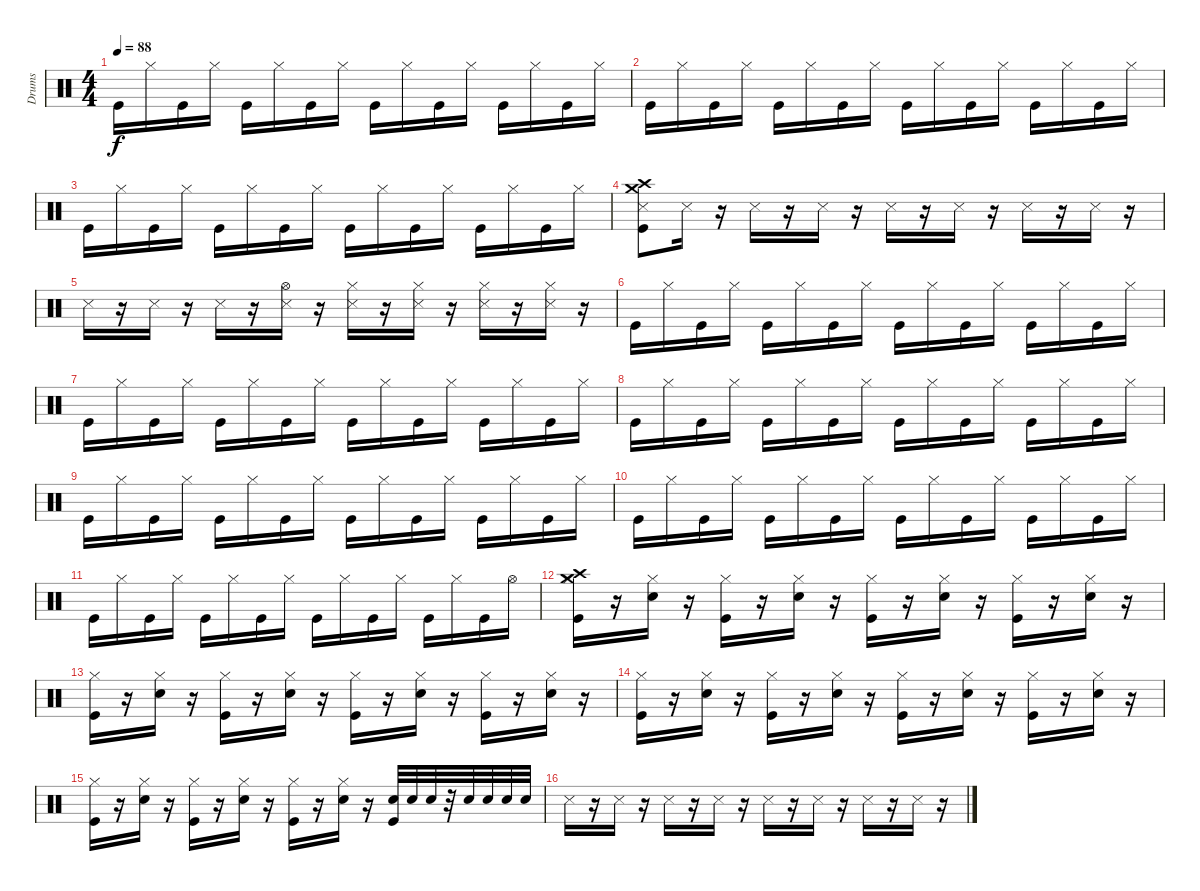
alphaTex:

\track ("Drums" "Drums") {instrument percussion}
\staff {score}
\articulation defaults
\ts (4 4)
\tempo 88
\clef neutral
\ks c "Kick (hit)".16{dy f} "Hi-Hat (closed)".16 "Kick (hit)".16 "Hi-Hat (closed)".16 "Kick (hit)".16 "Hi-Hat (closed)".16 "Kick (hit)".16 "Hi-Hat (closed)".16 "Kick (hit)".16 "Hi-Hat (closed)".16 "Kick (hit)".16 "Hi-Hat (closed)".16 "Kick (hit)".16 "Hi-Hat (closed)".16 "Kick (hit)".16 "Hi-Hat (closed)".16
|
"Kick (hit)".16 "Hi-Hat (closed)".16 "Kick (hit)".16 "Hi-Hat (closed)".16 "Kick (hit)".16 "Hi-Hat (closed)".16 "Kick (hit)".16 "Hi-Hat (closed)".16 "Kick (hit)".16 "Hi-Hat (closed)".16 "Kick (hit)".16 "Hi-Hat (closed)".16 "Kick (hit)".16 "Hi-Hat (closed)".16 "Kick (hit)".16 "Hi-Hat (closed)".16 |
"Kick (hit)".16 "Hi-Hat (closed)".16 "Kick (hit)".16 "Hi-Hat (closed)".16 "Kick (hit)".16 "Hi-Hat (closed)".16 "Kick (hit)".16 "Hi-Hat (closed)".16 "Kick (hit)".16 "Hi-Hat (closed)".16 "Kick (hit)".16 "Hi-Hat (closed)".16 "Kick (hit)".16 "Hi-Hat (closed)".16 "Kick (hit)".16 "Hi-Hat (closed)".16 |
("Snare (side stick) 3" "Crash medium (hit)" "Crash high (hit)" "Kick (hit)").8 "Snare (side stick) 3".16 r.16 "Snare (side stick) 3".16 r.16 "Snare (side stick) 3".16 r.16 "Snare (side stick) 3".16 r.16 "Snare (side stick) 3".16 r.16 "Snare (side stick) 3".16 r.16 "Snare (side stick) 3".16 r.16 |
"Snare (side stick) 3".16 r.16 "Snare (side stick) 3".16 r.16 "Snare (side stick) 3".16 r.16 ("Hi-Hat (open)" "Snare (side stick) 3").16 r.16 ("Hi-Hat (closed)" "Snare (side stick) 3").16 r.16 ("Hi-Hat (closed)" "Snare (side stick) 3").16 r.16 ("Hi-Hat (closed)" "Snare (side stick) 3").16 r.16 ("Hi-Hat (closed)" "Snare (side stick) 3").16 r.16 |
"Kick (hit)".16 "Hi-Hat (closed)".16 "Kick (hit)".16 "Hi-Hat (closed)".16 "Kick (hit)".16 "Hi-Hat (closed)".16 "Kick (hit)".16 "Hi-Hat (closed)".16 "Kick (hit)".16 "Hi-Hat (closed)".16 "Kick (hit)".16 "Hi-Hat (closed)".16 "Kick (hit)".16 "Hi-Hat (closed)".16 "Kick (hit)".16 "Hi-Hat (closed)".16 |
"Kick (hit)".16 "Hi-Hat (closed)".16 "Kick (hit)".16 "Hi-Hat (closed)".16 "Kick (hit)".16 "Hi-Hat (closed)".16 "Kick (hit)".16 "Hi-Hat (closed)".16 "Kick (hit)".16 "Hi-Hat (closed)".16 "Kick (hit)".16 "Hi-Hat (closed)".16 "Kick (hit)".16 "Hi-Hat (closed)".16 "Kick (hit)".16 "Hi-Hat (closed)".16 |
"Kick (hit)".16 "Hi-Hat (closed)".16 "Kick (hit)".16 "Hi-Hat (closed)".16 "Kick (hit)".16 "Hi-Hat (closed)".16 "Kick (hit)".16 "Hi-Hat (closed)".16 "Kick (hit)".16 "Hi-Hat (closed)".16 "Kick (hit)".16 "Hi-Hat (closed)".16 "Kick (hit)".16 "Hi-Hat (closed)".16 "Kick (hit)".16 "Hi-Hat (closed)".16 |
"Kick (hit)".16 "Hi-Hat (closed)".16 "Kick (hit)".16 "Hi-Hat (closed)".16 "Kick (hit)".16 "Hi-Hat (closed)".16 "Kick (hit)".16 "Hi-Hat (closed)".16 "Kick (hit)".16 "Hi-Hat (closed)".16 "Kick (hit)".16 "Hi-Hat (closed)".16 "Kick (hit)".16 "Hi-Hat (closed)".16 "Kick (hit)".16 "Hi-Hat (closed)".16 |
"Kick (hit)".16 "Hi-Hat (closed)".16 "Kick (hit)".16 "Hi-Hat (closed)".16 "Kick (hit)".16 "Hi-Hat (closed)".16 "Kick (hit)".16 "Hi-Hat (closed)".16 "Kick (hit)".16 "Hi-Hat (closed)".16 "Kick (hit)".16 "Hi-Hat (closed)".16 "Kick (hit)".16 "Hi-Hat (closed)".16 "Kick (hit)".16 "Hi-Hat (closed)".16 |
"Kick (hit)".16 "Hi-Hat (closed)".16 "Kick (hit)".16 "Hi-Hat (closed)".16 "Kick (hit)".16 "Hi-Hat (closed)".16 "Kick (hit)".16 "Hi-Hat (closed)".16 "Kick (hit)".16 "Hi-Hat (closed)".16 "Kick (hit)".16 "Hi-Hat (closed)".16 "Kick (hit)".16 "Hi-Hat (closed)".16 "Kick (hit)".16 "Hi-Hat (open)".16 |
("Crash medium (hit)" "Kick (hit)" "Crash high (hit)" "Hi-Hat (closed)").16 r.16 ("Hi-Hat (closed)" "Snare (hit) 2").16 r.16 ("Hi-Hat (closed)" "Kick (hit)").16 r.16 ("Hi-Hat (closed)" "Snare (hit) 2").16 r.16 ("Hi-Hat (closed)" "Kick (hit)").16 r.16 ("Hi-Hat (closed)" "Snare (hit) 2").16 r.16 ("Kick (hit)" "Hi-Hat (closed)").16 r.16 ("Hi-Hat (closed)" "Snare (hit) 2").16 r.16 |
("Hi-Hat (closed)" "Kick (hit)").16 r.16 ("Hi-Hat (closed)" "Snare (hit) 2").16 r.16 ("Kick (hit)" "Hi-Hat (closed)").16 r.16 ("Hi-Hat (closed)" "Snare (hit) 2").16 r.16 ("Hi-Hat (closed)" "Kick (hit)").16 r.16 ("Snare (hit) 2" "Hi-Hat (closed)").16 r.16 ("Kick (hit)" "Hi-Hat (closed)").16 r.16 ("Snare (hit) 2" "Hi-Hat (closed)").16 r.16 |
("Hi-Hat (closed)" "Kick (hit)").16 r.16 ("Snare (hit) 2" "Hi-Hat (closed)").16 r.16 ("Hi-Hat (closed)" "Kick (hit)").16 r.16 ("Snare (hit) 2" "Hi-Hat (closed)").16 r.16 ("Hi-Hat (closed)" "Kick (hit)").16 r.16 ("Hi-Hat (closed)" "Snare (hit) 2").16 r.16 ("Hi-Hat (closed)" "Kick (hit)").16 r.16 ("Hi-Hat (closed)" "Snare (hit) 2").16 r.16 |
("Hi-Hat (closed)" "Kick (hit)").16 r.16 ("Snare (hit) 2" "Hi-Hat (closed)").16 r.16 ("Hi-Hat (closed)" "Kick (hit)").16 r.16 ("Hi-Hat (closed)" "Snare (hit) 2").16 r.16 ("Kick (hit)" "Hi-Hat (closed)").16 r.16 ("Hi-Hat (closed)" "Snare (hit) 2").16 r.16 ("Kick (hit)" "Snare (hit) 2").32 "Snare (hit) 2".32 "Snare (hit) 2".32 r.32 "Snare (hit) 2".32 "Snare (hit) 2".32 "Snare (hit) 2".32 "Snare (hit) 2".32 |
"Snare (side stick) 3".16 r.16 "Snare (side stick) 3".16 r.16 "Snare (side stick) 3".16 r.16 "Snare (side stick) 3".16 r.16 "Snare (side stick) 3".16 r.16 "Snare (side stick) 3".16 r.16 "Snare (side stick) 3".16 r.16 "Snare (side stick) 3".16 r.16
